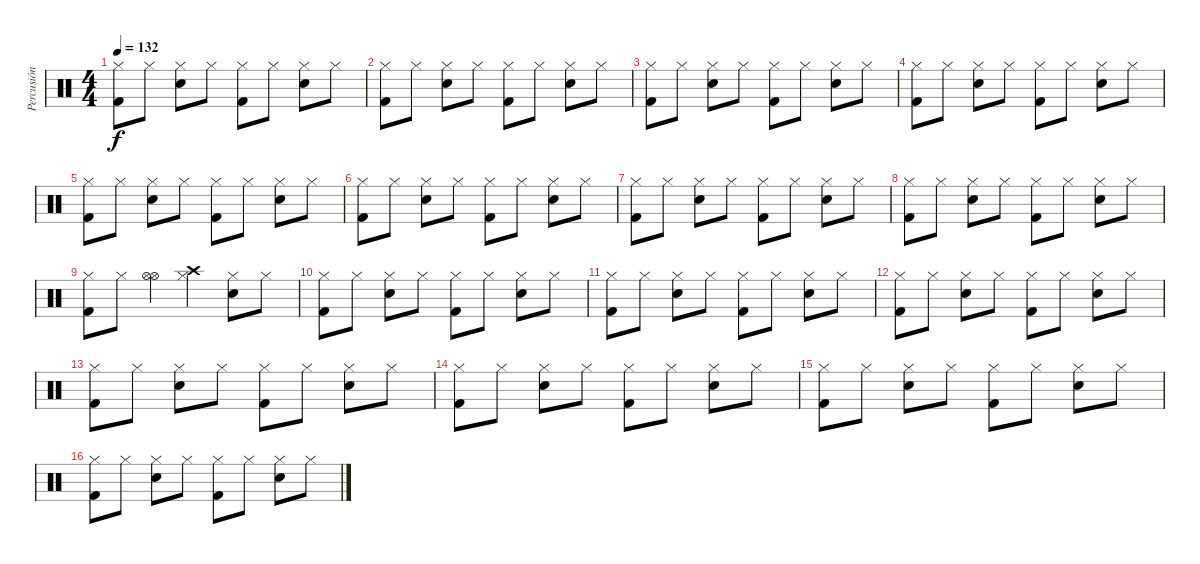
\track ("Percusión" "Percusión") {instrument percussion}
\staff {score}
\articulation defaults
\ts (4 4)
\tempo 132
\clef neutral
\ks c
("Hi-Hat (closed)" "Kick (hit) 2").8{dy f} "Hi-Hat (closed)".8 ("Hi-Hat (closed)" "Electric Snare (hit)").8 "Hi-Hat (closed)".8 ("Hi-Hat (closed)" "Kick (hit) 2").8 "Hi-Hat (closed)".8 ("Hi-Hat (closed)" "Electric Snare (hit)").8 "Hi-Hat (closed)".8 |
("Hi-Hat (closed)" "Kick (hit) 2").8 "Hi-Hat (closed)".8 ("Hi-Hat (closed)" "Electric Snare (hit)").8 "Hi-Hat (closed)".8 ("Hi-Hat (closed)" "Kick (hit) 2").8 "Hi-Hat (closed)".8 ("Hi-Hat (closed)" "Electric Snare (hit)").8 "Hi-Hat (closed)".8 |
("Hi-Hat (closed)" "Kick (hit) 2").8 "Hi-Hat (closed)".8 ("Hi-Hat (closed)" "Electric Snare (hit)").8 "Hi-Hat (closed)".8 ("Hi-Hat (closed)" "Kick (hit) 2").8 "Hi-Hat (closed)".8 ("Hi-Hat (closed)" "Electric Snare (hit)").8 "Hi-Hat (closed)".8 |
("Hi-Hat (closed)" "Kick (hit) 2").8 "Hi-Hat (closed)".8 ("Hi-Hat (closed)" "Electric Snare (hit)").8 "Hi-Hat (closed)".8 ("Hi-Hat (closed)" "Kick (hit) 2").8 "Hi-Hat (closed)".8 ("Hi-Hat (closed)" "Electric Snare (hit)").8 "Hi-Hat (closed)".8 |
("Hi-Hat (closed)" "Kick (hit) 2").8 "Hi-Hat (closed)".8 ("Hi-Hat (closed)" "Electric Snare (hit)").8 "Hi-Hat (closed)".8 ("Hi-Hat (closed)" "Kick (hit) 2").8 "Hi-Hat (closed)".8 ("Hi-Hat (closed)" "Electric Snare (hit)").8 "Hi-Hat (closed)".8 |
("Hi-Hat (closed)" "Kick (hit) 2").8 "Hi-Hat (closed)".8 ("Hi-Hat (closed)" "Electric Snare (hit)").8 "Hi-Hat (closed)".8 ("Hi-Hat (closed)" "Kick (hit) 2").8 "Hi-Hat (closed)".8 ("Hi-Hat (closed)" "Electric Snare (hit)").8 "Hi-Hat (closed)".8 |
("Hi-Hat (closed)" "Kick (hit) 2").8 "Hi-Hat (closed)".8 ("Hi-Hat (closed)" "Electric Snare (hit)").8 "Hi-Hat (closed)".8 ("Hi-Hat (closed)" "Kick (hit) 2").8 "Hi-Hat (closed)".8 ("Hi-Hat (closed)" "Electric Snare (hit)").8 "Hi-Hat (closed)".8 |
("Hi-Hat (closed)" "Kick (hit) 2").8 "Hi-Hat (closed)".8 ("Hi-Hat (closed)" "Electric Snare (hit)").8 "Hi-Hat (closed)".8 ("Hi-Hat (closed)" "Kick (hit) 2").8 "Hi-Hat (closed)".8 ("Hi-Hat (closed)" "Electric Snare (hit)").8 "Hi-Hat (closed)".8 |
("Hi-Hat (closed)" "Kick (hit) 2").8 "Hi-Hat (closed)".8 ("Hi-Hat (open)" "Hi-Hat (open)").4 ("Crash high (hit)" "Hi-Hat (closed)").4 ("Hi-Hat (closed)" "Electric Snare (hit)").8 "Hi-Hat (closed)".8 |
("Hi-Hat (closed)" "Kick (hit) 2").8 "Hi-Hat (closed)".8 ("Hi-Hat (closed)" "Electric Snare (hit)").8 "Hi-Hat (closed)".8 ("Hi-Hat (closed)" "Kick (hit) 2").8 "Hi-Hat (closed)".8 ("Hi-Hat (closed)" "Electric Snare (hit)").8 "Hi-Hat (closed)".8 |
("Hi-Hat (closed)" "Kick (hit) 2").8 "Hi-Hat (closed)".8 ("Hi-Hat (closed)" "Electric Snare (hit)").8 "Hi-Hat (closed)".8 ("Hi-Hat (closed)" "Kick (hit) 2").8 "Hi-Hat (closed)".8 ("Hi-Hat (closed)" "Electric Snare (hit)").8 "Hi-Hat (closed)".8 |
("Hi-Hat (closed)" "Kick (hit) 2").8 "Hi-Hat (closed)".8 ("Hi-Hat (closed)" "Electric Snare (hit)").8 "Hi-Hat (closed)".8 ("Hi-Hat (closed)" "Kick (hit) 2").8 "Hi-Hat (closed)".8 ("Hi-Hat (closed)" "Electric Snare (hit)").8 "Hi-Hat (closed)".8 |
("Hi-Hat (closed)" "Kick (hit) 2").8 "Hi-Hat (closed)".8 ("Hi-Hat (closed)" "Electric Snare (hit)").8 "Hi-Hat (closed)".8 ("Hi-Hat (closed)" "Kick (hit) 2").8 "Hi-Hat (closed)".8 ("Hi-Hat (closed)" "Electric Snare (hit)").8 "Hi-Hat (closed)".8 |
("Hi-Hat (closed)" "Kick (hit) 2").8 "Hi-Hat (closed)".8 ("Hi-Hat (closed)" "Electric Snare (hit)").8 "Hi-Hat (closed)".8 ("Hi-Hat (closed)" "Kick (hit) 2").8 "Hi-Hat (closed)".8 ("Hi-Hat (closed)" "Electric Snare (hit)").8 "Hi-Hat (closed)".8 |
("Hi-Hat (closed)" "Kick (hit) 2").8 "Hi-Hat (closed)".8 ("Hi-Hat (closed)" "Electric Snare (hit)").8 "Hi-Hat (closed)".8 ("Hi-Hat (closed)" "Kick (hit) 2").8 "Hi-Hat (closed)".8 ("Hi-Hat (closed)" "Electric Snare (hit)").8 "Hi-Hat (closed)".8 |
("Hi-Hat (closed)" "Kick (hit) 2").8 "Hi-Hat (closed)".8 ("Hi-Hat (closed)" "Electric Snare (hit)").8 "Hi-Hat (closed)".8 ("Hi-Hat (closed)" "Kick (hit) 2").8 "Hi-Hat (closed)".8 ("Hi-Hat (closed)" "Electric Snare (hit)").8 "Hi-Hat (closed)".8
